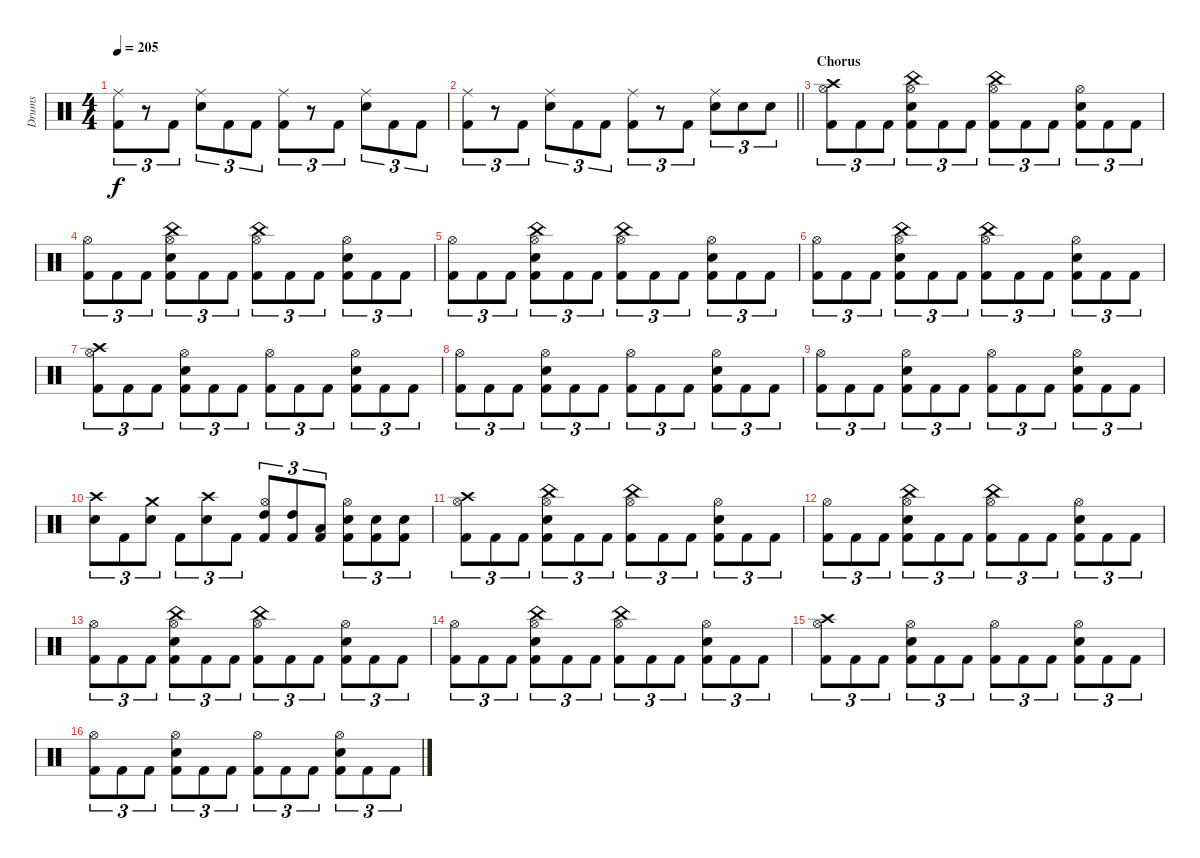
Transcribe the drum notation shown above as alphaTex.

\track ("Drums" "Drums") {instrument percussion}
\staff {score}
\articulation defaults
\ts (4 4)
\tempo 205
\clef neutral
\ks c
("Ride (middle)" "Kick (hit) 2").8{tu (3 2) dy f} r.8{tu (3 2)} "Kick (hit) 2".8{tu (3 2)} ("Ride (middle)" "Snare (hit) 2").8{tu (3 2)} "Kick (hit) 2".8{tu (3 2)} "Kick (hit) 2".8{tu (3 2)} ("Ride (middle)" "Kick (hit) 2").8{tu (3 2)} r.8{tu (3 2)} "Kick (hit) 2".8{tu (3 2)} ("Ride (middle)" "Snare (hit) 2").8{tu (3 2)} "Kick (hit) 2".8{tu (3 2)} "Kick (hit) 2".8{tu (3 2)} |
\barLineRight lightlight
("Ride (middle)" "Kick (hit) 2").8{tu (3 2)} r.8{tu (3 2)} "Kick (hit) 2".8{tu (3 2)} ("Ride (middle)" "Snare (hit) 2").8{tu (3 2)} "Kick (hit) 2".8{tu (3 2)} "Kick (hit) 2".8{tu (3 2)} ("Ride (middle)" "Kick (hit) 2").8{tu (3 2)} r.8{tu (3 2)} "Kick (hit) 2".8{tu (3 2)} ("Ride (middle)" "Snare (hit) 2").8{tu (3 2)} "Snare (hit) 2".8{tu (3 2)} "Snare (hit) 2".8{tu (3 2)} |
\section ("" "Chorus")
("Crash high (hit)" "Hi-Hat (open)" "Kick (hit) 2").8{tu (3 2)} "Kick (hit) 2".8{tu (3 2)} "Kick (hit) 2".8{tu (3 2)} ("China (hit)" "Hi-Hat (open)" "Snare (hit) 2" "Kick (hit) 2").8{tu (3 2)} "Kick (hit) 2".8{tu (3 2)} "Kick (hit) 2".8{tu (3 2)} ("China (hit)" "Hi-Hat (open)" "Kick (hit) 2").8{tu (3 2)} "Kick (hit) 2".8{tu (3 2)} "Kick (hit) 2".8{tu (3 2)} ("Hi-Hat (open)" "Snare (hit) 2" "Kick (hit) 2").8{tu (3 2)} "Kick (hit) 2".8{tu (3 2)} "Kick (hit) 2".8{tu (3 2)} |
("Hi-Hat (open)" "Kick (hit) 2").8{tu (3 2)} "Kick (hit) 2".8{tu (3 2)} "Kick (hit) 2".8{tu (3 2)} ("China (hit)" "Hi-Hat (open)" "Snare (hit) 2" "Kick (hit) 2").8{tu (3 2)} "Kick (hit) 2".8{tu (3 2)} "Kick (hit) 2".8{tu (3 2)} ("China (hit)" "Hi-Hat (open)" "Kick (hit) 2").8{tu (3 2)} "Kick (hit) 2".8{tu (3 2)} "Kick (hit) 2".8{tu (3 2)} ("Hi-Hat (open)" "Snare (hit) 2" "Kick (hit) 2").8{tu (3 2)} "Kick (hit) 2".8{tu (3 2)} "Kick (hit) 2".8{tu (3 2)} |
("Hi-Hat (open)" "Kick (hit) 2").8{tu (3 2)} "Kick (hit) 2".8{tu (3 2)} "Kick (hit) 2".8{tu (3 2)} ("China (hit)" "Hi-Hat (open)" "Snare (hit) 2" "Kick (hit) 2").8{tu (3 2)} "Kick (hit) 2".8{tu (3 2)} "Kick (hit) 2".8{tu (3 2)} ("China (hit)" "Hi-Hat (open)" "Kick (hit) 2").8{tu (3 2)} "Kick (hit) 2".8{tu (3 2)} "Kick (hit) 2".8{tu (3 2)} ("Hi-Hat (open)" "Snare (hit) 2" "Kick (hit) 2").8{tu (3 2)} "Kick (hit) 2".8{tu (3 2)} "Kick (hit) 2".8{tu (3 2)} |
("Hi-Hat (open)" "Kick (hit) 2").8{tu (3 2)} "Kick (hit) 2".8{tu (3 2)} "Kick (hit) 2".8{tu (3 2)} ("China (hit)" "Hi-Hat (open)" "Snare (hit) 2" "Kick (hit) 2").8{tu (3 2)} "Kick (hit) 2".8{tu (3 2)} "Kick (hit) 2".8{tu (3 2)} ("China (hit)" "Hi-Hat (open)" "Kick (hit) 2").8{tu (3 2)} "Kick (hit) 2".8{tu (3 2)} "Kick (hit) 2".8{tu (3 2)} ("Hi-Hat (open)" "Snare (hit) 2" "Kick (hit) 2").8{tu (3 2)} "Kick (hit) 2".8{tu (3 2)} "Kick (hit) 2".8{tu (3 2)} |
("Crash high (hit)" "Hi-Hat (open)" "Kick (hit) 2").8{tu (3 2)} "Kick (hit) 2".8{tu (3 2)} "Kick (hit) 2".8{tu (3 2)} ("Hi-Hat (open)" "Snare (hit) 2" "Kick (hit) 2").8{tu (3 2)} "Kick (hit) 2".8{tu (3 2)} "Kick (hit) 2".8{tu (3 2)} ("Hi-Hat (open)" "Kick (hit) 2").8{tu (3 2)} "Kick (hit) 2".8{tu (3 2)} "Kick (hit) 2".8{tu (3 2)} ("Hi-Hat (open)" "Snare (hit) 2" "Kick (hit) 2").8{tu (3 2)} "Kick (hit) 2".8{tu (3 2)} "Kick (hit) 2".8{tu (3 2)} |
("Hi-Hat (open)" "Kick (hit) 2").8{tu (3 2)} "Kick (hit) 2".8{tu (3 2)} "Kick (hit) 2".8{tu (3 2)} ("Hi-Hat (open)" "Snare (hit) 2" "Kick (hit) 2").8{tu (3 2)} "Kick (hit) 2".8{tu (3 2)} "Kick (hit) 2".8{tu (3 2)} ("Hi-Hat (open)" "Kick (hit) 2").8{tu (3 2)} "Kick (hit) 2".8{tu (3 2)} "Kick (hit) 2".8{tu (3 2)} ("Hi-Hat (open)" "Snare (hit) 2" "Kick (hit) 2").8{tu (3 2)} "Kick (hit) 2".8{tu (3 2)} "Kick (hit) 2".8{tu (3 2)} |
("Hi-Hat (open)" "Kick (hit) 2").8{tu (3 2)} "Kick (hit) 2".8{tu (3 2)} "Kick (hit) 2".8{tu (3 2)} ("Hi-Hat (open)" "Snare (hit) 2" "Kick (hit) 2").8{tu (3 2)} "Kick (hit) 2".8{tu (3 2)} "Kick (hit) 2".8{tu (3 2)} ("Hi-Hat (open)" "Kick (hit) 2").8{tu (3 2)} "Kick (hit) 2".8{tu (3 2)} "Kick (hit) 2".8{tu (3 2)} ("Hi-Hat (open)" "Snare (hit) 2" "Kick (hit) 2").8{tu (3 2)} "Kick (hit) 2".8{tu (3 2)} "Kick (hit) 2".8{tu (3 2)} |
("Crash high (hit)" "Snare (hit) 2").8{tu (3 2)} "Kick (hit) 2".8{tu (3 2)} ("Crash medium (hit)" "Snare (hit) 2").8{tu (3 2)} "Kick (hit) 2".8{tu (3 2)} ("Crash high (hit)" "Snare (hit) 2").8{tu (3 2)} "Kick (hit) 2".8{tu (3 2)} ("Hi-Hat (open)" "High Tom (hit)" "Kick (hit) 2").8{tu (3 2)} ("High Tom (hit)" "Kick (hit) 2").8{tu (3 2)} ("Low Tom (hit)" "Kick (hit) 2").8{tu (3 2)} ("Hi-Hat (open)" "Snare (hit) 2" "Kick (hit) 2").8{tu (3 2)} ("Snare (hit) 2" "Kick (hit) 2").8{tu (3 2)} ("Snare (hit) 2" "Kick (hit) 2").8{tu (3 2)} |
("Crash high (hit)" "Hi-Hat (open)" "Kick (hit) 2").8{tu (3 2)} "Kick (hit) 2".8{tu (3 2)} "Kick (hit) 2".8{tu (3 2)} ("China (hit)" "Hi-Hat (open)" "Snare (hit) 2" "Kick (hit) 2").8{tu (3 2)} "Kick (hit) 2".8{tu (3 2)} "Kick (hit) 2".8{tu (3 2)} ("China (hit)" "Hi-Hat (open)" "Kick (hit) 2").8{tu (3 2)} "Kick (hit) 2".8{tu (3 2)} "Kick (hit) 2".8{tu (3 2)} ("Hi-Hat (open)" "Snare (hit) 2" "Kick (hit) 2").8{tu (3 2)} "Kick (hit) 2".8{tu (3 2)} "Kick (hit) 2".8{tu (3 2)} |
("Hi-Hat (open)" "Kick (hit) 2").8{tu (3 2)} "Kick (hit) 2".8{tu (3 2)} "Kick (hit) 2".8{tu (3 2)} ("China (hit)" "Hi-Hat (open)" "Snare (hit) 2" "Kick (hit) 2").8{tu (3 2)} "Kick (hit) 2".8{tu (3 2)} "Kick (hit) 2".8{tu (3 2)} ("China (hit)" "Hi-Hat (open)" "Kick (hit) 2").8{tu (3 2)} "Kick (hit) 2".8{tu (3 2)} "Kick (hit) 2".8{tu (3 2)} ("Hi-Hat (open)" "Snare (hit) 2" "Kick (hit) 2").8{tu (3 2)} "Kick (hit) 2".8{tu (3 2)} "Kick (hit) 2".8{tu (3 2)} |
("Hi-Hat (open)" "Kick (hit) 2").8{tu (3 2)} "Kick (hit) 2".8{tu (3 2)} "Kick (hit) 2".8{tu (3 2)} ("China (hit)" "Hi-Hat (open)" "Snare (hit) 2" "Kick (hit) 2").8{tu (3 2)} "Kick (hit) 2".8{tu (3 2)} "Kick (hit) 2".8{tu (3 2)} ("China (hit)" "Hi-Hat (open)" "Kick (hit) 2").8{tu (3 2)} "Kick (hit) 2".8{tu (3 2)} "Kick (hit) 2".8{tu (3 2)} ("Hi-Hat (open)" "Snare (hit) 2" "Kick (hit) 2").8{tu (3 2)} "Kick (hit) 2".8{tu (3 2)} "Kick (hit) 2".8{tu (3 2)} |
("Hi-Hat (open)" "Kick (hit) 2").8{tu (3 2)} "Kick (hit) 2".8{tu (3 2)} "Kick (hit) 2".8{tu (3 2)} ("China (hit)" "Hi-Hat (open)" "Snare (hit) 2" "Kick (hit) 2").8{tu (3 2)} "Kick (hit) 2".8{tu (3 2)} "Kick (hit) 2".8{tu (3 2)} ("China (hit)" "Hi-Hat (open)" "Kick (hit) 2").8{tu (3 2)} "Kick (hit) 2".8{tu (3 2)} "Kick (hit) 2".8{tu (3 2)} ("Hi-Hat (open)" "Snare (hit) 2" "Kick (hit) 2").8{tu (3 2)} "Kick (hit) 2".8{tu (3 2)} "Kick (hit) 2".8{tu (3 2)} |
("Crash high (hit)" "Hi-Hat (open)" "Kick (hit) 2").8{tu (3 2)} "Kick (hit) 2".8{tu (3 2)} "Kick (hit) 2".8{tu (3 2)} ("Hi-Hat (open)" "Snare (hit) 2" "Kick (hit) 2").8{tu (3 2)} "Kick (hit) 2".8{tu (3 2)} "Kick (hit) 2".8{tu (3 2)} ("Hi-Hat (open)" "Kick (hit) 2").8{tu (3 2)} "Kick (hit) 2".8{tu (3 2)} "Kick (hit) 2".8{tu (3 2)} ("Hi-Hat (open)" "Snare (hit) 2" "Kick (hit) 2").8{tu (3 2)} "Kick (hit) 2".8{tu (3 2)} "Kick (hit) 2".8{tu (3 2)} |
("Hi-Hat (open)" "Kick (hit) 2").8{tu (3 2)} "Kick (hit) 2".8{tu (3 2)} "Kick (hit) 2".8{tu (3 2)} ("Hi-Hat (open)" "Snare (hit) 2" "Kick (hit) 2").8{tu (3 2)} "Kick (hit) 2".8{tu (3 2)} "Kick (hit) 2".8{tu (3 2)} ("Hi-Hat (open)" "Kick (hit) 2").8{tu (3 2)} "Kick (hit) 2".8{tu (3 2)} "Kick (hit) 2".8{tu (3 2)} ("Hi-Hat (open)" "Snare (hit) 2" "Kick (hit) 2").8{tu (3 2)} "Kick (hit) 2".8{tu (3 2)} "Kick (hit) 2".8{tu (3 2)}
